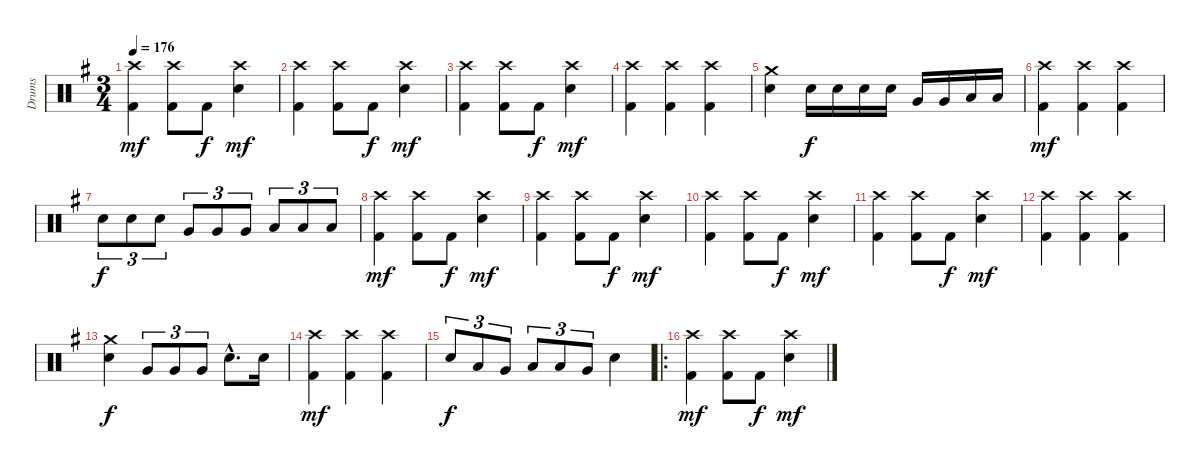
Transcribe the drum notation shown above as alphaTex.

\track ("Drums" "Drums") {instrument percussion}
\staff {score}
\articulation defaults
\ts (3 4)
\tempo 176
\clef neutral
\ks g
("Crash high (hit)" "Kick (hit) 2").4{dy mf} ("Crash high (hit)" "Kick (hit) 2").8 "Kick (hit) 2".8{dy f} ("Crash high (hit)" "Snare (hit) 2").4{dy mf} |
("Crash high (hit)" "Kick (hit) 2").4 ("Crash high (hit)" "Kick (hit) 2").8 "Kick (hit) 2".8{dy f} ("Crash high (hit)" "Snare (hit) 2").4{dy mf} |
("Crash high (hit)" "Kick (hit) 2").4 ("Crash high (hit)" "Kick (hit) 2").8 "Kick (hit) 2".8{dy f} ("Crash high (hit)" "Snare (hit) 2").4{dy mf} |
("Crash high (hit)" "Kick (hit) 2").4 ("Crash high (hit)" "Kick (hit) 2").4 ("Crash high (hit)" "Kick (hit) 2").4 |
("Crash medium (hit)" "Snare (hit) 2").4 "Snare (hit) 2".16{dy f} "Snare (hit) 2".16 "Snare (hit) 2".16 "Snare (hit) 2".16 "Very Low Tom (hit)".16 "Very Low Tom (hit)".16 "Low Floor Tom (hit)".16 "Low Floor Tom (hit)".16 |
("Crash high (hit)" "Kick (hit) 2").4{dy mf} ("Crash high (hit)" "Kick (hit) 2").4 ("Crash high (hit)" "Kick (hit) 2").4 |
"Snare (hit) 2".8{tu (3 2) dy f} "Snare (hit) 2".8{tu (3 2)} "Snare (hit) 2".8{tu (3 2)} "Very Low Tom (hit)".8{tu (3 2)} "Very Low Tom (hit)".8{tu (3 2)} "Very Low Tom (hit)".8{tu (3 2)} "Low Floor Tom (hit)".8{tu (3 2)} "Low Floor Tom (hit)".8{tu (3 2)} "Low Floor Tom (hit)".8{tu (3 2)} |
("Crash high (hit)" "Kick (hit) 2").4{dy mf} ("Crash high (hit)" "Kick (hit) 2").8 "Kick (hit) 2".8{dy f} ("Crash high (hit)" "Snare (hit) 2").4{dy mf} |
("Crash high (hit)" "Kick (hit) 2").4 ("Crash high (hit)" "Kick (hit) 2").8 "Kick (hit) 2".8{dy f} ("Crash high (hit)" "Snare (hit) 2").4{dy mf} |
("Crash high (hit)" "Kick (hit) 2").4 ("Crash high (hit)" "Kick (hit) 2").8 "Kick (hit) 2".8{dy f} ("Crash high (hit)" "Snare (hit) 2").4{dy mf} |
("Crash high (hit)" "Kick (hit) 2").4 ("Crash high (hit)" "Kick (hit) 2").8 "Kick (hit) 2".8{dy f} ("Crash high (hit)" "Snare (hit) 2").4{dy mf} |
("Crash high (hit)" "Kick (hit) 2").4 ("Crash high (hit)" "Kick (hit) 2").4 ("Crash high (hit)" "Kick (hit) 2").4 |
("Crash medium (hit)" "Snare (hit) 2").4{dy f} "Very Low Tom (hit)".8{tu (3 2)} "Very Low Tom (hit)".8{tu (3 2)} "Very Low Tom (hit)".8{tu (3 2)} "Snare (hit) 2"{hac}.8{d} "Snare (hit) 2".16 |
("Crash high (hit)" "Kick (hit) 2").4{dy mf} ("Crash high (hit)" "Kick (hit) 2").4 ("Crash high (hit)" "Kick (hit) 2").4 |
"Snare (hit) 2".8{tu (3 2) dy f} "Low Tom (hit)".8{tu (3 2)} "Very Low Tom (hit)".8{tu (3 2)} "Low Floor Tom (hit)".8{tu (3 2)} "Low Floor Tom (hit)".8{tu (3 2)} "Very Low Tom (hit)".8{tu (3 2)} "Snare (hit) 2".4 |
\ro
("Crash high (hit)" "Kick (hit) 2").4{dy mf} ("Crash high (hit)" "Kick (hit) 2").8 "Kick (hit) 2".8{dy f} ("Crash high (hit)" "Snare (hit) 2").4{dy mf}
